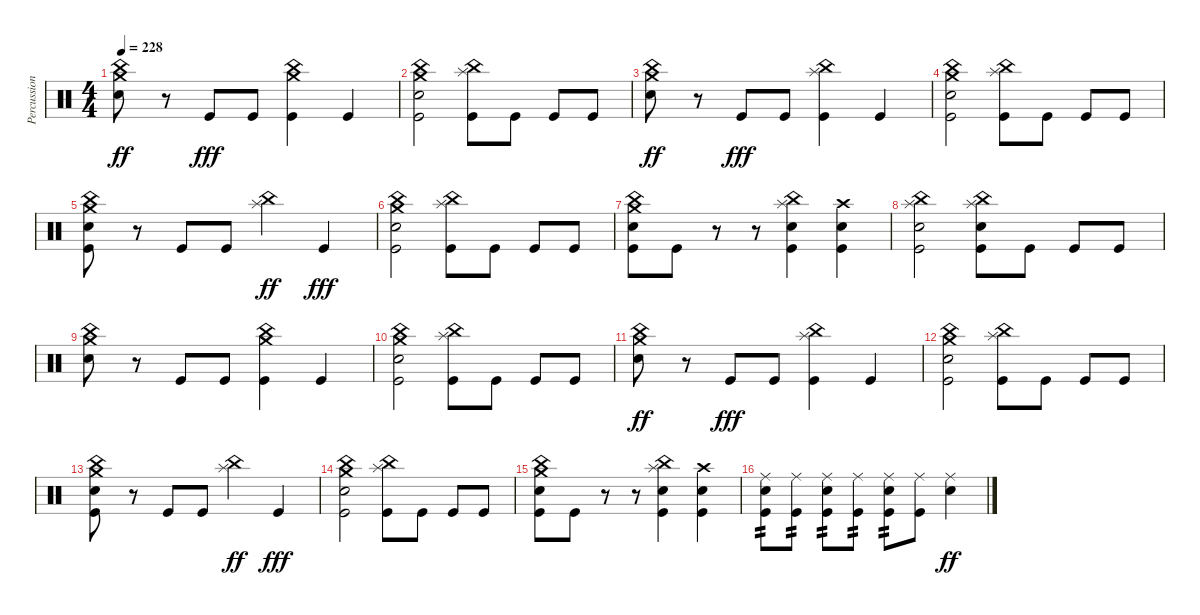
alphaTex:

\track ("Percussion" "Percussion") {instrument percussion}
\staff {score}
\articulation defaults
\ts (4 4)
\tempo 228
\clef neutral
\ks c
("China (hit)" "Crash medium (hit)" "Electric Snare (hit)").8{dy ff} r.8 "Kick (hit)".8{dy fff} "Kick (hit)".8 ("China (hit)" "Crash medium (hit)" "Kick (hit)").4 "Kick (hit)".4 |
("China (hit)" "Crash medium (hit)" "Electric Snare (hit)" "Kick (hit)").2 ("China (hit)" "Splash (hit)" "Kick (hit)").8 "Kick (hit)".8 "Kick (hit)".8 "Kick (hit)".8 |
("China (hit)" "Crash medium (hit)" "Electric Snare (hit)").8{dy ff} r.8 "Kick (hit)".8{dy fff} "Kick (hit)".8 ("China (hit)" "Splash (hit)" "Kick (hit)").4 "Kick (hit)".4 |
("China (hit)" "Crash medium (hit)" "Electric Snare (hit)" "Kick (hit)").2 ("China (hit)" "Splash (hit)" "Kick (hit)").8 "Kick (hit)".8 "Kick (hit)".8 "Kick (hit)".8 |
("China (hit)" "Crash medium (hit)" "Electric Snare (hit)" "Kick (hit)").8 r.8 "Kick (hit)".8 "Kick (hit)".8 ("China (hit)" "Splash (hit)").4{dy ff} "Kick (hit)".4{dy fff} |
("China (hit)" "Crash medium (hit)" "Electric Snare (hit)" "Kick (hit)").2 ("China (hit)" "Splash (hit)" "Kick (hit)").8 "Kick (hit)".8 "Kick (hit)".8 "Kick (hit)".8 |
("China (hit)" "Crash medium (hit)" "Electric Snare (hit)" "Kick (hit)").8 "Kick (hit)".8 r.8 r.8 ("China (hit)" "Splash (hit)" "Electric Snare (hit)" "Kick (hit)").4 ("Crash high (hit)" "Electric Snare (hit)" "Kick (hit)").4 |
("Splash (hit)" "China (hit)" "Electric Snare (hit)" "Kick (hit)").2 ("China (hit)" "Splash (hit)" "Electric Snare (hit)" "Kick (hit)").8 "Kick (hit)".8 "Kick (hit)".8 "Kick (hit)".8 |
("China (hit)" "Crash medium (hit)" "Electric Snare (hit)").8 r.8 "Kick (hit)".8 "Kick (hit)".8 ("China (hit)" "Crash medium (hit)" "Kick (hit)").4 "Kick (hit)".4 |
("China (hit)" "Crash medium (hit)" "Electric Snare (hit)" "Kick (hit)").2 ("China (hit)" "Splash (hit)" "Kick (hit)").8 "Kick (hit)".8 "Kick (hit)".8 "Kick (hit)".8 |
("China (hit)" "Crash medium (hit)" "Electric Snare (hit)").8{dy ff} r.8 "Kick (hit)".8{dy fff} "Kick (hit)".8 ("China (hit)" "Splash (hit)" "Kick (hit)").4 "Kick (hit)".4 |
("China (hit)" "Crash medium (hit)" "Electric Snare (hit)" "Kick (hit)").2 ("China (hit)" "Splash (hit)" "Kick (hit)").8 "Kick (hit)".8 "Kick (hit)".8 "Kick (hit)".8 |
("China (hit)" "Crash medium (hit)" "Electric Snare (hit)" "Kick (hit)").8 r.8 "Kick (hit)".8 "Kick (hit)".8 ("China (hit)" "Splash (hit)").4{dy ff} "Kick (hit)".4{dy fff} |
("China (hit)" "Crash medium (hit)" "Electric Snare (hit)" "Kick (hit)").2 ("China (hit)" "Splash (hit)" "Kick (hit)").8 "Kick (hit)".8 "Kick (hit)".8 "Kick (hit)".8 |
("China (hit)" "Crash medium (hit)" "Electric Snare (hit)" "Kick (hit)").8 "Kick (hit)".8 r.8 r.8 ("China (hit)" "Splash (hit)" "Electric Snare (hit)" "Kick (hit)").4 ("Crash high (hit)" "Electric Snare (hit)" "Kick (hit)").4 |
("Ride (middle)" "Snare (hit) 2" "Kick (hit)").8{tp 2} ("Ride (middle)" "Kick (hit)").8{tp 2} ("Ride (middle)" "Snare (hit) 2" "Kick (hit)").8{tp 2} ("Ride (middle)" "Kick (hit)").8{tp 2} ("Ride (middle)" "Snare (hit) 2" "Kick (hit)").8{tp 2} ("Ride (middle)" "Kick (hit)").8 ("Ride (middle)" "Snare (hit) 2").4{dy ff}
